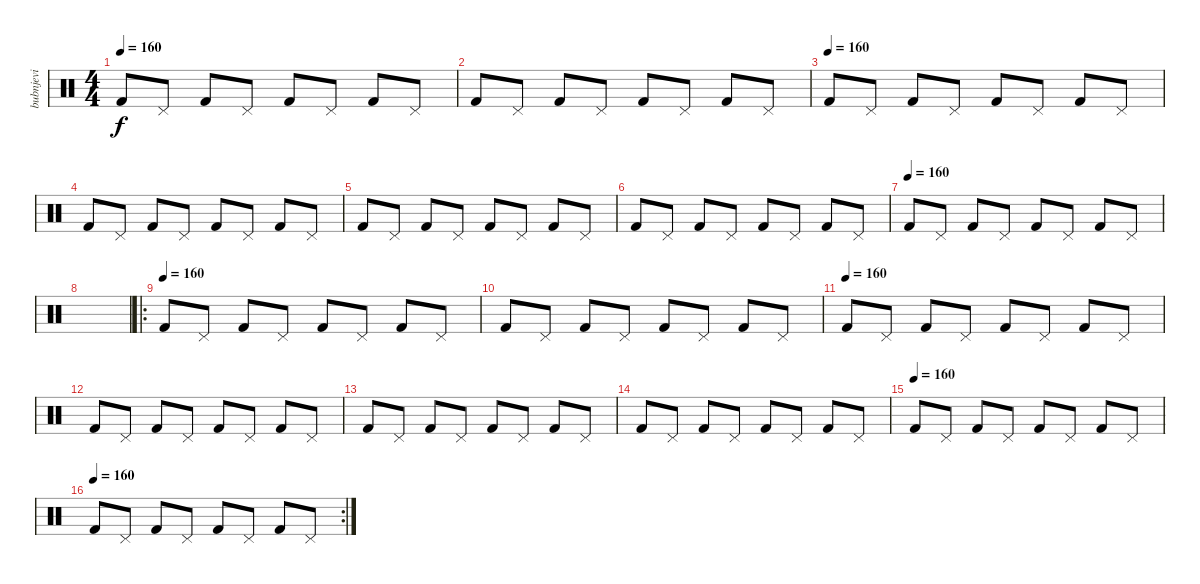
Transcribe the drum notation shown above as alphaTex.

\track ("bubnjevi" "bubnjevi") {instrument percussion}
\staff {score}
\articulation defaults
\ts (4 4)
\tempo 165
\tempo 160
\clef neutral
\ks c "Kick (hit) 2".8{dy f} "Pedal Hi-Hat (hit)".8 "Kick (hit) 2".8 "Pedal Hi-Hat (hit)".8 "Kick (hit) 2".8 "Pedal Hi-Hat (hit)".8 "Kick (hit) 2".8 "Pedal Hi-Hat (hit)".8
|
"Kick (hit) 2".8 "Pedal Hi-Hat (hit)".8 "Kick (hit) 2".8 "Pedal Hi-Hat (hit)".8 "Kick (hit) 2".8 "Pedal Hi-Hat (hit)".8 "Kick (hit) 2".8 "Pedal Hi-Hat (hit)".8 |
\tempo 165
\tempo (160)
"Kick (hit) 2".8 "Pedal Hi-Hat (hit)".8 "Kick (hit) 2".8 "Pedal Hi-Hat (hit)".8 "Kick (hit) 2".8 "Pedal Hi-Hat (hit)".8 "Kick (hit) 2".8 "Pedal Hi-Hat (hit)".8 |
"Kick (hit) 2".8 "Pedal Hi-Hat (hit)".8 "Kick (hit) 2".8 "Pedal Hi-Hat (hit)".8 "Kick (hit) 2".8 "Pedal Hi-Hat (hit)".8 "Kick (hit) 2".8 "Pedal Hi-Hat (hit)".8 |
"Kick (hit) 2".8 "Pedal Hi-Hat (hit)".8 "Kick (hit) 2".8 "Pedal Hi-Hat (hit)".8 "Kick (hit) 2".8 "Pedal Hi-Hat (hit)".8 "Kick (hit) 2".8 "Pedal Hi-Hat (hit)".8 |
"Kick (hit) 2".8 "Pedal Hi-Hat (hit)".8 "Kick (hit) 2".8 "Pedal Hi-Hat (hit)".8 "Kick (hit) 2".8 "Pedal Hi-Hat (hit)".8 "Kick (hit) 2".8 "Pedal Hi-Hat (hit)".8 |
\tempo 165
\tempo (160)
"Kick (hit) 2".8 "Pedal Hi-Hat (hit)".8 "Kick (hit) 2".8 "Pedal Hi-Hat (hit)".8 "Kick (hit) 2".8 "Pedal Hi-Hat (hit)".8 "Kick (hit) 2".8 "Pedal Hi-Hat (hit)".8 |
|
\ro
\tempo 165
\tempo (160)
"Kick (hit) 2".8 "Pedal Hi-Hat (hit)".8 "Kick (hit) 2".8 "Pedal Hi-Hat (hit)".8 "Kick (hit) 2".8 "Pedal Hi-Hat (hit)".8 "Kick (hit) 2".8 "Pedal Hi-Hat (hit)".8 |
"Kick (hit) 2".8 "Pedal Hi-Hat (hit)".8 "Kick (hit) 2".8 "Pedal Hi-Hat (hit)".8 "Kick (hit) 2".8 "Pedal Hi-Hat (hit)".8 "Kick (hit) 2".8 "Pedal Hi-Hat (hit)".8 |
\tempo 165
\tempo (160)
"Kick (hit) 2".8 "Pedal Hi-Hat (hit)".8 "Kick (hit) 2".8 "Pedal Hi-Hat (hit)".8 "Kick (hit) 2".8 "Pedal Hi-Hat (hit)".8 "Kick (hit) 2".8 "Pedal Hi-Hat (hit)".8 |
"Kick (hit) 2".8 "Pedal Hi-Hat (hit)".8 "Kick (hit) 2".8 "Pedal Hi-Hat (hit)".8 "Kick (hit) 2".8 "Pedal Hi-Hat (hit)".8 "Kick (hit) 2".8 "Pedal Hi-Hat (hit)".8 |
"Kick (hit) 2".8 "Pedal Hi-Hat (hit)".8 "Kick (hit) 2".8 "Pedal Hi-Hat (hit)".8 "Kick (hit) 2".8 "Pedal Hi-Hat (hit)".8 "Kick (hit) 2".8 "Pedal Hi-Hat (hit)".8 |
"Kick (hit) 2".8 "Pedal Hi-Hat (hit)".8 "Kick (hit) 2".8 "Pedal Hi-Hat (hit)".8 "Kick (hit) 2".8 "Pedal Hi-Hat (hit)".8 "Kick (hit) 2".8 "Pedal Hi-Hat (hit)".8 |
\tempo 165
\tempo (160)
"Kick (hit) 2".8 "Pedal Hi-Hat (hit)".8 "Kick (hit) 2".8 "Pedal Hi-Hat (hit)".8 "Kick (hit) 2".8 "Pedal Hi-Hat (hit)".8 "Kick (hit) 2".8 "Pedal Hi-Hat (hit)".8 |
\rc 2
\tempo 165
\tempo (160)
"Kick (hit) 2".8 "Pedal Hi-Hat (hit)".8 "Kick (hit) 2".8 "Pedal Hi-Hat (hit)".8 "Kick (hit) 2".8 "Pedal Hi-Hat (hit)".8 "Kick (hit) 2".8 "Pedal Hi-Hat (hit)".8
